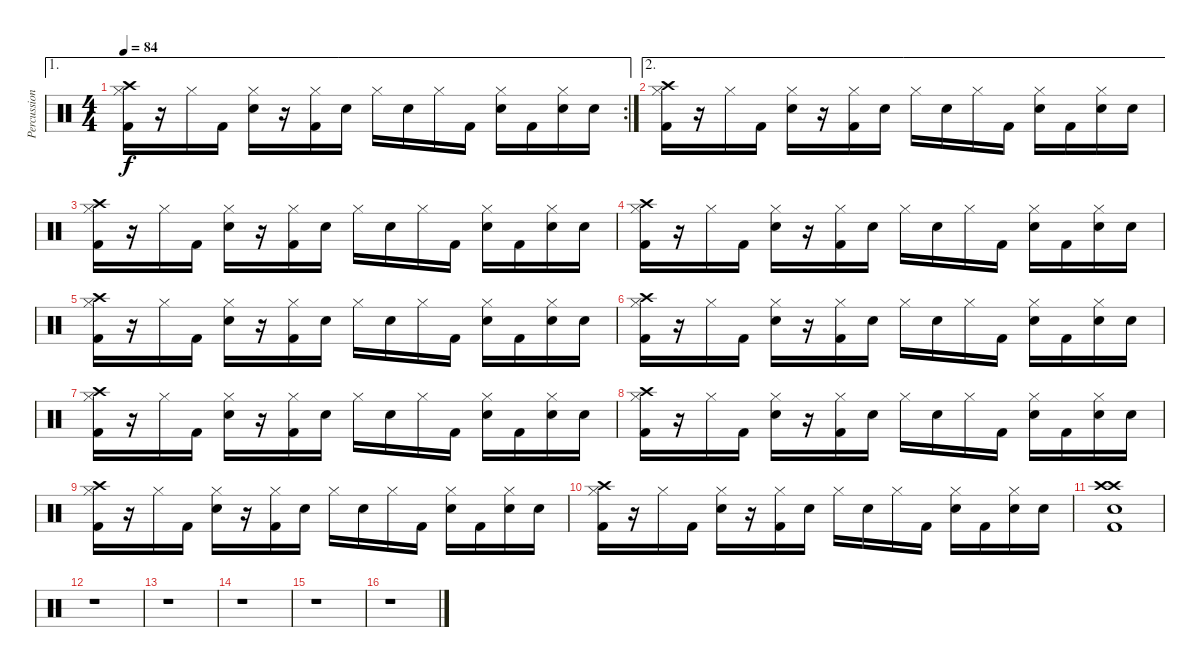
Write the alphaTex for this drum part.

\track ("Percussion" "Percussion") {instrument percussion}
\staff {score}
\articulation defaults
\ae 1
\rc 2
\ts (4 4)
\tempo 84
\clef neutral
\ks c
("Crash high (hit)" "Hi-Hat (closed)" "Kick (hit) 2").16{dy f} r.16 "Hi-Hat (closed)".16 "Kick (hit) 2".16 ("Hi-Hat (closed)" "Snare (hit) 2").16 r.16 ("Hi-Hat (closed)" "Kick (hit) 2").16 "Snare (hit) 2".16 "Hi-Hat (closed)".16 "Snare (hit) 2".16 "Hi-Hat (closed)".16 "Kick (hit) 2".16 ("Hi-Hat (closed)" "Snare (hit) 2").16 "Kick (hit) 2".16 ("Hi-Hat (closed)" "Snare (hit) 2").16 "Snare (hit) 2".16 |
\ae 2
("Crash high (hit)" "Hi-Hat (closed)" "Kick (hit) 2").16 r.16 "Hi-Hat (closed)".16 "Kick (hit) 2".16 ("Hi-Hat (closed)" "Snare (hit) 2").16 r.16 ("Hi-Hat (closed)" "Kick (hit) 2").16 "Snare (hit) 2".16 "Hi-Hat (closed)".16 "Snare (hit) 2".16 "Hi-Hat (closed)".16 "Kick (hit) 2".16 ("Hi-Hat (closed)" "Snare (hit) 2").16 "Kick (hit) 2".16 ("Hi-Hat (closed)" "Snare (hit) 2").16 "Snare (hit) 2".16 |
("Crash high (hit)" "Hi-Hat (closed)" "Kick (hit) 2").16 r.16 "Hi-Hat (closed)".16 "Kick (hit) 2".16 ("Hi-Hat (closed)" "Snare (hit) 2").16 r.16 ("Hi-Hat (closed)" "Kick (hit) 2").16 "Snare (hit) 2".16 "Hi-Hat (closed)".16 "Snare (hit) 2".16 "Hi-Hat (closed)".16 "Kick (hit) 2".16 ("Hi-Hat (closed)" "Snare (hit) 2").16 "Kick (hit) 2".16 ("Hi-Hat (closed)" "Snare (hit) 2").16 "Snare (hit) 2".16 |
("Crash high (hit)" "Hi-Hat (closed)" "Kick (hit) 2").16 r.16 "Hi-Hat (closed)".16 "Kick (hit) 2".16 ("Hi-Hat (closed)" "Snare (hit) 2").16 r.16 ("Hi-Hat (closed)" "Kick (hit) 2").16 "Snare (hit) 2".16 "Hi-Hat (closed)".16 "Snare (hit) 2".16 "Hi-Hat (closed)".16 "Kick (hit) 2".16 ("Hi-Hat (closed)" "Snare (hit) 2").16 "Kick (hit) 2".16 ("Hi-Hat (closed)" "Snare (hit) 2").16 "Snare (hit) 2".16 |
("Crash high (hit)" "Hi-Hat (closed)" "Kick (hit) 2").16 r.16 "Hi-Hat (closed)".16 "Kick (hit) 2".16 ("Hi-Hat (closed)" "Snare (hit) 2").16 r.16 ("Hi-Hat (closed)" "Kick (hit) 2").16 "Snare (hit) 2".16 "Hi-Hat (closed)".16 "Snare (hit) 2".16 "Hi-Hat (closed)".16 "Kick (hit) 2".16 ("Hi-Hat (closed)" "Snare (hit) 2").16 "Kick (hit) 2".16 ("Hi-Hat (closed)" "Snare (hit) 2").16 "Snare (hit) 2".16 |
("Crash high (hit)" "Hi-Hat (closed)" "Kick (hit) 2").16 r.16 "Hi-Hat (closed)".16 "Kick (hit) 2".16 ("Hi-Hat (closed)" "Snare (hit) 2").16 r.16 ("Hi-Hat (closed)" "Kick (hit) 2").16 "Snare (hit) 2".16 "Hi-Hat (closed)".16 "Snare (hit) 2".16 "Hi-Hat (closed)".16 "Kick (hit) 2".16 ("Hi-Hat (closed)" "Snare (hit) 2").16 "Kick (hit) 2".16 ("Hi-Hat (closed)" "Snare (hit) 2").16 "Snare (hit) 2".16 |
("Crash high (hit)" "Hi-Hat (closed)" "Kick (hit) 2").16 r.16 "Hi-Hat (closed)".16 "Kick (hit) 2".16 ("Hi-Hat (closed)" "Snare (hit) 2").16 r.16 ("Hi-Hat (closed)" "Kick (hit) 2").16 "Snare (hit) 2".16 "Hi-Hat (closed)".16 "Snare (hit) 2".16 "Hi-Hat (closed)".16 "Kick (hit) 2".16 ("Hi-Hat (closed)" "Snare (hit) 2").16 "Kick (hit) 2".16 ("Hi-Hat (closed)" "Snare (hit) 2").16 "Snare (hit) 2".16 |
("Crash high (hit)" "Hi-Hat (closed)" "Kick (hit) 2").16 r.16 "Hi-Hat (closed)".16 "Kick (hit) 2".16 ("Hi-Hat (closed)" "Snare (hit) 2").16 r.16 ("Hi-Hat (closed)" "Kick (hit) 2").16 "Snare (hit) 2".16 "Hi-Hat (closed)".16 "Snare (hit) 2".16 "Hi-Hat (closed)".16 "Kick (hit) 2".16 ("Hi-Hat (closed)" "Snare (hit) 2").16 "Kick (hit) 2".16 ("Hi-Hat (closed)" "Snare (hit) 2").16 "Snare (hit) 2".16 |
("Crash high (hit)" "Hi-Hat (closed)" "Kick (hit) 2").16 r.16 "Hi-Hat (closed)".16 "Kick (hit) 2".16 ("Hi-Hat (closed)" "Snare (hit) 2").16 r.16 ("Hi-Hat (closed)" "Kick (hit) 2").16 "Snare (hit) 2".16 "Hi-Hat (closed)".16 "Snare (hit) 2".16 "Hi-Hat (closed)".16 "Kick (hit) 2".16 ("Hi-Hat (closed)" "Snare (hit) 2").16 "Kick (hit) 2".16 ("Hi-Hat (closed)" "Snare (hit) 2").16 "Snare (hit) 2".16 |
("Crash high (hit)" "Hi-Hat (closed)" "Kick (hit) 2").16 r.16 "Hi-Hat (closed)".16 "Kick (hit) 2".16 ("Hi-Hat (closed)" "Snare (hit) 2").16 r.16 ("Hi-Hat (closed)" "Kick (hit) 2").16 "Snare (hit) 2".16 "Hi-Hat (closed)".16 "Snare (hit) 2".16 "Hi-Hat (closed)".16 "Kick (hit) 2".16 ("Hi-Hat (closed)" "Snare (hit) 2").16 "Kick (hit) 2".16 ("Hi-Hat (closed)" "Snare (hit) 2").16 "Snare (hit) 2".16 |
("Crash high (hit)" "Crash high (hit)" "Snare (hit) 2" "Kick (hit) 2").1 |
r.1 |
r.1 |
r.1 |
r.1 |
r.1
